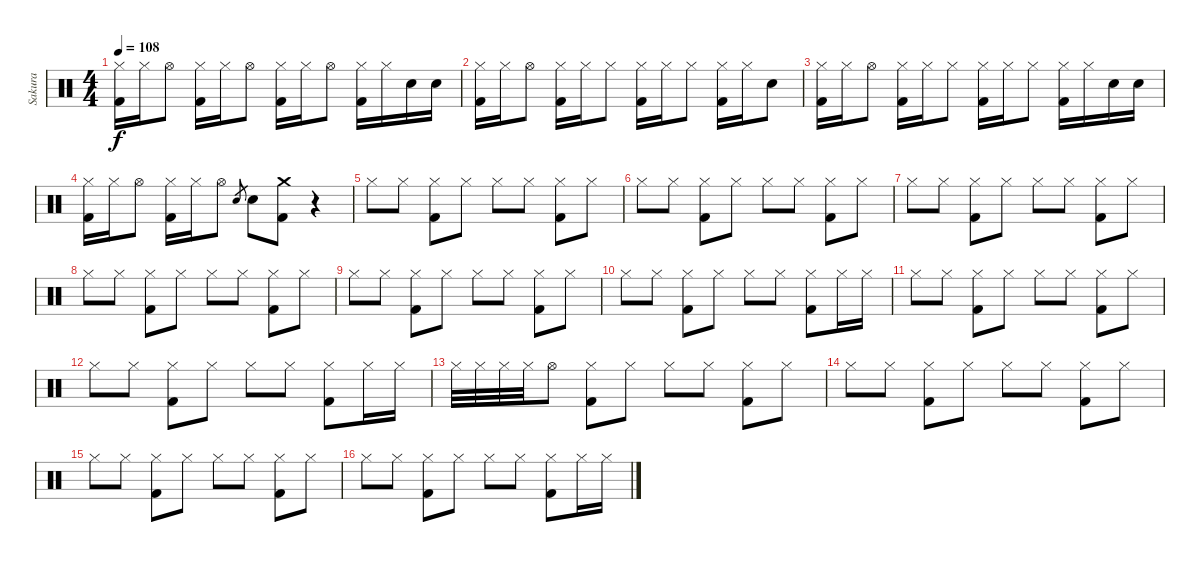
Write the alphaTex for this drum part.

\track ("Sakura" "Sakura") {instrument percussion}
\staff {score}
\articulation defaults
\ts (4 4)
\tempo 108
\clef neutral
\ks c
("Hi-Hat (closed)" "Kick (hit) 2").16{dy f} "Hi-Hat (closed)".16 "Hi-Hat (open)".8 ("Hi-Hat (closed)" "Kick (hit) 2").16 "Hi-Hat (closed)".16 "Hi-Hat (open)".8 ("Hi-Hat (closed)" "Kick (hit) 2").16 "Hi-Hat (closed)".16 "Hi-Hat (open)".8 ("Hi-Hat (closed)" "Kick (hit) 2").16 "Hi-Hat (closed)".16 "Snare (hit) 2".16 "Snare (hit) 2".16 |
("Hi-Hat (closed)" "Kick (hit) 2").16 "Hi-Hat (closed)".16 "Hi-Hat (open)".8 ("Hi-Hat (closed)" "Kick (hit) 2").16 "Hi-Hat (closed)".16 "Hi-Hat (closed)".8 ("Hi-Hat (closed)" "Kick (hit) 2").16 "Hi-Hat (closed)".16 "Hi-Hat (closed)".8 ("Hi-Hat (closed)" "Kick (hit) 2").16 "Hi-Hat (closed)".16 "Snare (hit) 2".8 |
("Hi-Hat (closed)" "Kick (hit) 2").16 "Hi-Hat (closed)".16 "Hi-Hat (open)".8 ("Hi-Hat (closed)" "Kick (hit) 2").16 "Hi-Hat (closed)".16 "Hi-Hat (closed)".8 ("Hi-Hat (closed)" "Kick (hit) 2").16 "Hi-Hat (closed)".16 "Hi-Hat (closed)".8 ("Hi-Hat (closed)" "Kick (hit) 2").16 "Hi-Hat (closed)".16 "Snare (hit) 2".16 "Snare (hit) 2".16 |
("Hi-Hat (closed)" "Kick (hit) 2").16 "Hi-Hat (closed)".16 "Hi-Hat (open)".8 ("Hi-Hat (closed)" "Kick (hit) 2").16 "Hi-Hat (closed)".16 "Hi-Hat (open)".8 "Snare (hit) 2".8{gr} "Snare (hit) 2".8 ("Crash medium (hit)" "Kick (hit) 2").8 r.4 |
"Hi-Hat (closed)".8 "Hi-Hat (closed)".8 ("Hi-Hat (closed)" "Kick (hit) 2").8 "Hi-Hat (closed)".8 "Hi-Hat (closed)".8 "Hi-Hat (closed)".8 ("Hi-Hat (closed)" "Kick (hit) 2").8 "Hi-Hat (closed)".8 |
"Hi-Hat (closed)".8 "Hi-Hat (closed)".8 ("Hi-Hat (closed)" "Kick (hit) 2").8 "Hi-Hat (closed)".8 "Hi-Hat (closed)".8 "Hi-Hat (closed)".8 ("Hi-Hat (closed)" "Kick (hit) 2").8 "Hi-Hat (closed)".8 |
"Hi-Hat (closed)".8 "Hi-Hat (closed)".8 ("Hi-Hat (closed)" "Kick (hit) 2").8 "Hi-Hat (closed)".8 "Hi-Hat (closed)".8 "Hi-Hat (closed)".8 ("Hi-Hat (closed)" "Kick (hit) 2").8 "Hi-Hat (closed)".8 |
"Hi-Hat (closed)".8 "Hi-Hat (closed)".8 ("Hi-Hat (closed)" "Kick (hit) 2").8 "Hi-Hat (closed)".8 "Hi-Hat (closed)".8 "Hi-Hat (closed)".8 ("Hi-Hat (closed)" "Kick (hit) 2").8 "Hi-Hat (closed)".8 |
"Hi-Hat (closed)".8 "Hi-Hat (closed)".8 ("Hi-Hat (closed)" "Kick (hit) 2").8 "Hi-Hat (closed)".8 "Hi-Hat (closed)".8 "Hi-Hat (closed)".8 ("Hi-Hat (closed)" "Kick (hit) 2").8 "Hi-Hat (closed)".8 |
"Hi-Hat (closed)".8 "Hi-Hat (closed)".8 ("Hi-Hat (closed)" "Kick (hit) 2").8 "Hi-Hat (closed)".8 "Hi-Hat (closed)".8 "Hi-Hat (closed)".8 ("Hi-Hat (closed)" "Kick (hit) 2").8 "Hi-Hat (closed)".16 "Hi-Hat (closed)".16 |
"Hi-Hat (closed)".8 "Hi-Hat (closed)".8 ("Hi-Hat (closed)" "Kick (hit) 2").8 "Hi-Hat (closed)".8 "Hi-Hat (closed)".8 "Hi-Hat (closed)".8 ("Hi-Hat (closed)" "Kick (hit) 2").8 "Hi-Hat (closed)".8 |
"Hi-Hat (closed)".8 "Hi-Hat (closed)".8 ("Hi-Hat (closed)" "Kick (hit) 2").8 "Hi-Hat (closed)".8 "Hi-Hat (closed)".8 "Hi-Hat (closed)".8 ("Hi-Hat (closed)" "Kick (hit) 2").8 "Hi-Hat (closed)".16 "Hi-Hat (closed)".16 |
"Hi-Hat (closed)".32 "Hi-Hat (closed)".32 "Hi-Hat (closed)".32 "Hi-Hat (closed)".32 "Hi-Hat (open)".8 ("Hi-Hat (closed)" "Kick (hit) 2").8 "Hi-Hat (closed)".8 "Hi-Hat (closed)".8 "Hi-Hat (closed)".8 ("Hi-Hat (closed)" "Kick (hit) 2").8 "Hi-Hat (closed)".8 |
"Hi-Hat (closed)".8 "Hi-Hat (closed)".8 ("Hi-Hat (closed)" "Kick (hit) 2").8 "Hi-Hat (closed)".8 "Hi-Hat (closed)".8 "Hi-Hat (closed)".8 ("Hi-Hat (closed)" "Kick (hit) 2").8 "Hi-Hat (closed)".8 |
"Hi-Hat (closed)".8 "Hi-Hat (closed)".8 ("Hi-Hat (closed)" "Kick (hit) 2").8 "Hi-Hat (closed)".8 "Hi-Hat (closed)".8 "Hi-Hat (closed)".8 ("Hi-Hat (closed)" "Kick (hit) 2").8 "Hi-Hat (closed)".8 |
"Hi-Hat (closed)".8 "Hi-Hat (closed)".8 ("Hi-Hat (closed)" "Kick (hit) 2").8 "Hi-Hat (closed)".8 "Hi-Hat (closed)".8 "Hi-Hat (closed)".8 ("Hi-Hat (closed)" "Kick (hit) 2").8 "Hi-Hat (closed)".16 "Hi-Hat (closed)".16
